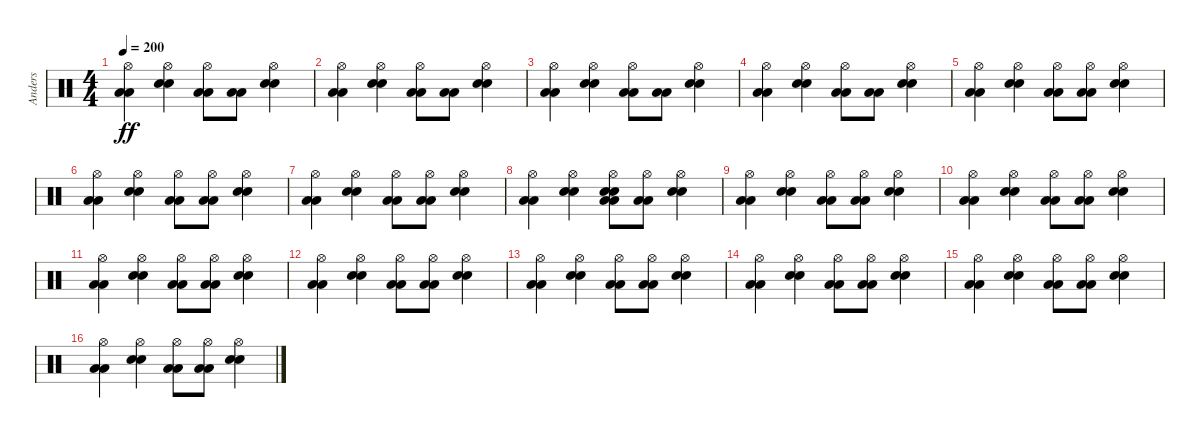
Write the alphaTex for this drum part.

\track ("Anders" "Anders") {instrument percussion}
\staff {score}
\articulation defaults
\ts (4 4)
\tempo 200
\clef neutral
\ks c
("Hi-Hat (open)" "Low Floor Tom (hit)" "Low Floor Tom (hit)").4{dy ff} ("Hi-Hat (open)" "Electric Snare (hit)" "Electric Snare (hit)").4 ("Hi-Hat (open)" "Low Floor Tom (hit)" "Low Floor Tom (hit)").8 ("Low Floor Tom (hit)" "Low Floor Tom (hit)").8 ("Hi-Hat (open)" "Electric Snare (hit)" "Electric Snare (hit)").4 |
("Hi-Hat (open)" "Low Floor Tom (hit)" "Low Floor Tom (hit)").4 ("Hi-Hat (open)" "Electric Snare (hit)" "Electric Snare (hit)").4 ("Hi-Hat (open)" "Low Floor Tom (hit)" "Low Floor Tom (hit)").8 ("Low Floor Tom (hit)" "Low Floor Tom (hit)").8 ("Hi-Hat (open)" "Electric Snare (hit)" "Electric Snare (hit)").4 |
("Hi-Hat (open)" "Low Floor Tom (hit)" "Low Floor Tom (hit)").4 ("Hi-Hat (open)" "Electric Snare (hit)" "Electric Snare (hit)").4 ("Hi-Hat (open)" "Low Floor Tom (hit)" "Low Floor Tom (hit)").8 ("Low Floor Tom (hit)" "Low Floor Tom (hit)").8 ("Hi-Hat (open)" "Electric Snare (hit)" "Electric Snare (hit)").4 |
("Hi-Hat (open)" "Low Floor Tom (hit)" "Low Floor Tom (hit)").4 ("Hi-Hat (open)" "Electric Snare (hit)" "Electric Snare (hit)").4 ("Hi-Hat (open)" "Low Floor Tom (hit)" "Low Floor Tom (hit)").8 ("Low Floor Tom (hit)" "Low Floor Tom (hit)").8 ("Hi-Hat (open)" "Electric Snare (hit)" "Electric Snare (hit)").4 |
("Hi-Hat (open)" "Low Floor Tom (hit)" "Low Floor Tom (hit)").4 ("Hi-Hat (open)" "Electric Snare (hit)" "Electric Snare (hit)").4 ("Hi-Hat (open)" "Low Floor Tom (hit)" "Low Floor Tom (hit)").8 ("Hi-Hat (open)" "Low Floor Tom (hit)" "Low Floor Tom (hit)").8 ("Hi-Hat (open)" "Electric Snare (hit)" "Electric Snare (hit)").4 |
("Hi-Hat (open)" "Low Floor Tom (hit)" "Low Floor Tom (hit)").4 ("Hi-Hat (open)" "Electric Snare (hit)" "Electric Snare (hit)").4 ("Hi-Hat (open)" "Low Floor Tom (hit)" "Low Floor Tom (hit)").8 ("Hi-Hat (open)" "Low Floor Tom (hit)" "Low Floor Tom (hit)").8 ("Hi-Hat (open)" "Electric Snare (hit)" "Electric Snare (hit)").4 |
("Hi-Hat (open)" "Low Floor Tom (hit)" "Low Floor Tom (hit)").4 ("Hi-Hat (open)" "Electric Snare (hit)" "Electric Snare (hit)").4 ("Hi-Hat (open)" "Low Floor Tom (hit)" "Low Floor Tom (hit)").8 ("Hi-Hat (open)" "Low Floor Tom (hit)" "Low Floor Tom (hit)").8 ("Hi-Hat (open)" "Electric Snare (hit)" "Electric Snare (hit)").4 |
("Hi-Hat (open)" "Low Floor Tom (hit)" "Low Floor Tom (hit)").4 ("Hi-Hat (open)" "Electric Snare (hit)" "Electric Snare (hit)").4 ("Hi-Hat (open)" "Electric Snare (hit)" "Electric Snare (hit)" "Low Floor Tom (hit)" "Low Floor Tom (hit)").8 ("Hi-Hat (open)" "Low Floor Tom (hit)" "Low Floor Tom (hit)").8 ("Hi-Hat (open)" "Electric Snare (hit)" "Electric Snare (hit)").4 |
("Hi-Hat (open)" "Low Floor Tom (hit)" "Low Floor Tom (hit)").4 ("Hi-Hat (open)" "Electric Snare (hit)" "Electric Snare (hit)").4 ("Hi-Hat (open)" "Low Floor Tom (hit)" "Low Floor Tom (hit)").8 ("Hi-Hat (open)" "Low Floor Tom (hit)" "Low Floor Tom (hit)").8 ("Hi-Hat (open)" "Electric Snare (hit)" "Electric Snare (hit)").4 |
("Hi-Hat (open)" "Low Floor Tom (hit)" "Low Floor Tom (hit)").4 ("Hi-Hat (open)" "Electric Snare (hit)" "Electric Snare (hit)").4 ("Hi-Hat (open)" "Low Floor Tom (hit)" "Low Floor Tom (hit)").8 ("Hi-Hat (open)" "Low Floor Tom (hit)" "Low Floor Tom (hit)").8 ("Hi-Hat (open)" "Electric Snare (hit)" "Electric Snare (hit)").4 |
("Hi-Hat (open)" "Low Floor Tom (hit)" "Low Floor Tom (hit)").4 ("Hi-Hat (open)" "Electric Snare (hit)" "Electric Snare (hit)").4 ("Hi-Hat (open)" "Low Floor Tom (hit)" "Low Floor Tom (hit)").8 ("Hi-Hat (open)" "Low Floor Tom (hit)" "Low Floor Tom (hit)").8 ("Hi-Hat (open)" "Electric Snare (hit)" "Electric Snare (hit)").4 |
("Hi-Hat (open)" "Low Floor Tom (hit)" "Low Floor Tom (hit)").4 ("Hi-Hat (open)" "Electric Snare (hit)" "Electric Snare (hit)").4 ("Hi-Hat (open)" "Low Floor Tom (hit)" "Low Floor Tom (hit)").8 ("Hi-Hat (open)" "Low Floor Tom (hit)" "Low Floor Tom (hit)").8 ("Hi-Hat (open)" "Electric Snare (hit)" "Electric Snare (hit)").4 |
("Hi-Hat (open)" "Low Floor Tom (hit)" "Low Floor Tom (hit)").4 ("Hi-Hat (open)" "Electric Snare (hit)" "Electric Snare (hit)").4 ("Hi-Hat (open)" "Low Floor Tom (hit)" "Low Floor Tom (hit)").8 ("Hi-Hat (open)" "Low Floor Tom (hit)" "Low Floor Tom (hit)").8 ("Hi-Hat (open)" "Electric Snare (hit)" "Electric Snare (hit)").4 |
("Hi-Hat (open)" "Low Floor Tom (hit)" "Low Floor Tom (hit)").4 ("Hi-Hat (open)" "Electric Snare (hit)" "Electric Snare (hit)").4 ("Hi-Hat (open)" "Low Floor Tom (hit)" "Low Floor Tom (hit)").8 ("Hi-Hat (open)" "Low Floor Tom (hit)" "Low Floor Tom (hit)").8 ("Hi-Hat (open)" "Electric Snare (hit)" "Electric Snare (hit)").4 |
("Hi-Hat (open)" "Low Floor Tom (hit)" "Low Floor Tom (hit)").4 ("Hi-Hat (open)" "Electric Snare (hit)" "Electric Snare (hit)").4 ("Hi-Hat (open)" "Low Floor Tom (hit)" "Low Floor Tom (hit)").8 ("Hi-Hat (open)" "Low Floor Tom (hit)" "Low Floor Tom (hit)").8 ("Hi-Hat (open)" "Electric Snare (hit)" "Electric Snare (hit)").4 |
("Hi-Hat (open)" "Low Floor Tom (hit)" "Low Floor Tom (hit)").4 ("Hi-Hat (open)" "Electric Snare (hit)" "Electric Snare (hit)").4 ("Hi-Hat (open)" "Low Floor Tom (hit)" "Low Floor Tom (hit)").8 ("Hi-Hat (open)" "Low Floor Tom (hit)" "Low Floor Tom (hit)").8 ("Hi-Hat (open)" "Electric Snare (hit)" "Electric Snare (hit)").4
